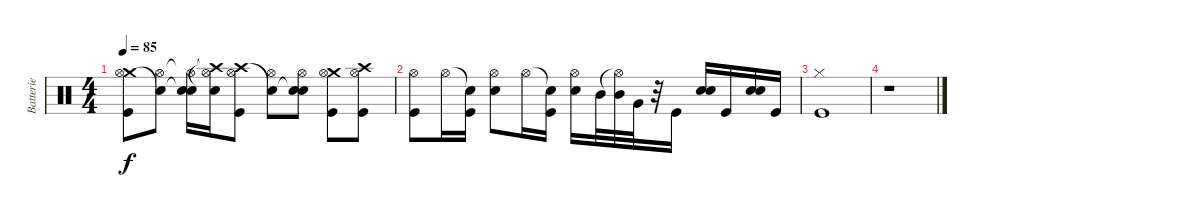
\track ("Batterie" "Batterie") {instrument percussion}
\staff {score}
\articulation defaults
\ts (4 4)
\tempo 85
\clef neutral
\ks c
("Crash medium (hit)" "Hi-Hat (open)" "Kick (hit)").8{dy f} ("Snare (hit)"{t} "Hi-Hat (open)").8 ("Snare (hit)"{t} "Hi-Hat (open)"{t} "Snare (hit) 2").16 ("Crash high (hit)"{t} "Hi-Hat (open)"{t} "Snare (hit) 2").16 ("Crash high (hit)" "Hi-Hat (open)" "Kick (hit)").8 ("Snare (hit)"{t} "Hi-Hat (open)").8 ("Snare (hit)"{t} "Hi-Hat (open)" "Snare (hit) 2").8 ("Crash medium (hit)" "Hi-Hat (open)" "Kick (hit)").8 ("Crash high (hit)" "Hi-Hat (open)" "Kick (hit)").8 |
("Hi-Hat (open)" "Kick (hit)").8 "Hi-Hat (open)".16 ("Snare (hit)"{t} "Kick (hit)").16 ("Hi-Hat (open)" "Snare (hit) 2").8 "Hi-Hat (open)".16 ("Snare (hit)"{t} "Kick (hit)").16 ("Hi-Hat (open)" "Snare (hit) 2").16 "Mid Tom (hit)".32 ("Hi-Hat (open)"{t} "Mid Tom (hit)").32 "Very Low Tom (hit)".32 r.32 "Kick (hit)".16 ("Snare (hit) 2" "Snare (hit) 2").16 "Kick (hit)".16 ("Snare (hit) 2" "Snare (hit) 2").16 "Kick (hit)".16 |
("Hi-Hat (closed)" "Kick (hit)").1 |
r.1
